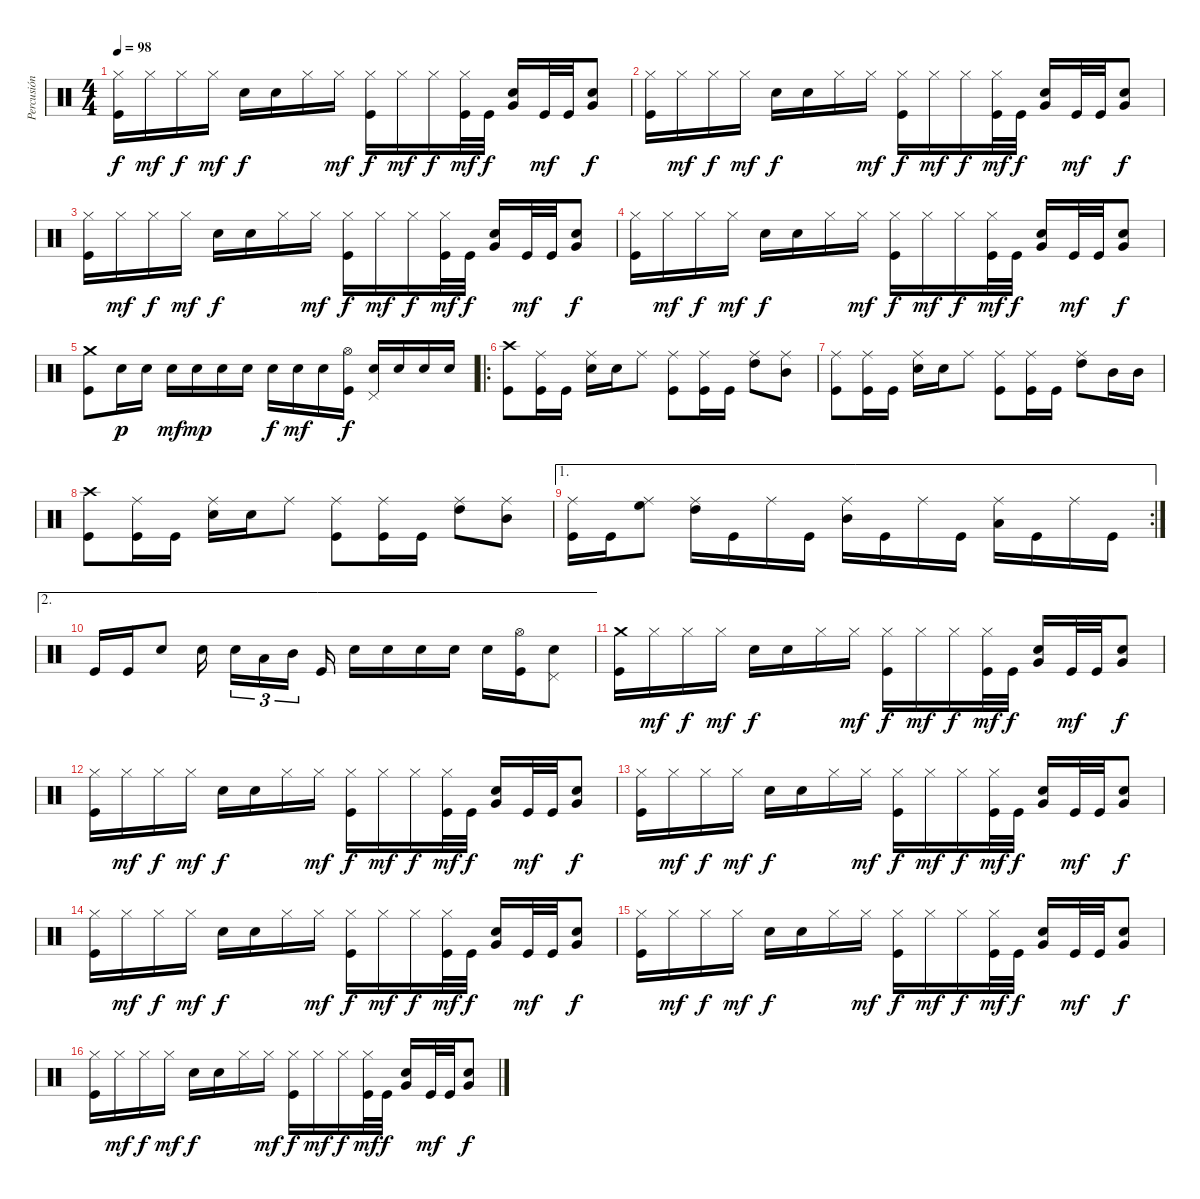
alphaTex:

\track ("Percusión" "Percusión") {instrument percussion}
\staff {score}
\articulation defaults
\ts (4 4)
\tempo 98
\clef neutral
\ks c
("Hi-Hat (closed)" "Kick (hit)").16{dy f} "Hi-Hat (closed)".16{dy mf} "Hi-Hat (closed)".16{dy f} "Hi-Hat (closed)".16{dy mf} "Electric Snare (hit)".16{dy f} "Electric Snare (hit)".16 "Hi-Hat (closed)".16 "Hi-Hat (closed)".16{dy mf} ("Hi-Hat (closed)" "Kick (hit)").16{dy f} "Hi-Hat (closed)".16{dy mf} "Hi-Hat (closed)".16{dy f} ("Hi-Hat (closed)" "Kick (hit)").32{dy mf} "Kick (hit)".32{dy f} ("Electric Snare (hit)" "Very Low Tom (hit)").16 "Kick (hit)".32{dy mf} "Kick (hit)".32 ("Electric Snare (hit)" "Very Low Tom (hit)").8{dy f} |
("Hi-Hat (closed)" "Kick (hit)").16 "Hi-Hat (closed)".16{dy mf} "Hi-Hat (closed)".16{dy f} "Hi-Hat (closed)".16{dy mf} "Electric Snare (hit)".16{dy f} "Electric Snare (hit)".16 "Hi-Hat (closed)".16 "Hi-Hat (closed)".16{dy mf} ("Hi-Hat (closed)" "Kick (hit)").16{dy f} "Hi-Hat (closed)".16{dy mf} "Hi-Hat (closed)".16{dy f} ("Hi-Hat (closed)" "Kick (hit)").32{dy mf} "Kick (hit)".32{dy f} ("Electric Snare (hit)" "Very Low Tom (hit)").16 "Kick (hit)".32{dy mf} "Kick (hit)".32 ("Electric Snare (hit)" "Very Low Tom (hit)").8{dy f} |
("Hi-Hat (closed)" "Kick (hit)").16 "Hi-Hat (closed)".16{dy mf} "Hi-Hat (closed)".16{dy f} "Hi-Hat (closed)".16{dy mf} "Electric Snare (hit)".16{dy f} "Electric Snare (hit)".16 "Hi-Hat (closed)".16 "Hi-Hat (closed)".16{dy mf} ("Hi-Hat (closed)" "Kick (hit)").16{dy f} "Hi-Hat (closed)".16{dy mf} "Hi-Hat (closed)".16{dy f} ("Hi-Hat (closed)" "Kick (hit)").32{dy mf} "Kick (hit)".32{dy f} ("Electric Snare (hit)" "Very Low Tom (hit)").16 "Kick (hit)".32{dy mf} "Kick (hit)".32 ("Electric Snare (hit)" "Very Low Tom (hit)").8{dy f} |
("Hi-Hat (closed)" "Kick (hit)").16 "Hi-Hat (closed)".16{dy mf} "Hi-Hat (closed)".16{dy f} "Hi-Hat (closed)".16{dy mf} "Electric Snare (hit)".16{dy f} "Electric Snare (hit)".16 "Hi-Hat (closed)".16 "Hi-Hat (closed)".16{dy mf} ("Hi-Hat (closed)" "Kick (hit)").16{dy f} "Hi-Hat (closed)".16{dy mf} "Hi-Hat (closed)".16{dy f} ("Hi-Hat (closed)" "Kick (hit)").32{dy mf} "Kick (hit)".32{dy f} ("Electric Snare (hit)" "Very Low Tom (hit)").16 "Kick (hit)".32{dy mf} "Kick (hit)".32 ("Electric Snare (hit)" "Very Low Tom (hit)").8{dy f} |
("Crash medium (hit)" "Kick (hit)").8 "Electric Snare (hit)".16{dy p} "Electric Snare (hit)".16 "Electric Snare (hit)".16{dy mf} "Electric Snare (hit)".16{dy mp} "Electric Snare (hit)".16 "Electric Snare (hit)".16 "Electric Snare (hit)".16{dy f} "Electric Snare (hit)".16{dy mf} "Electric Snare (hit)".16 ("Hi-Hat (open)" "Kick (hit)").16{dy f} ("Electric Snare (hit)" "Pedal Hi-Hat (hit)").16 "Electric Snare (hit)".16 "Electric Snare (hit)".16 "Electric Snare (hit)".16 |
\ro
("Crash high (hit)" "Kick (hit)").8 ("Ride (middle)" "Kick (hit)").16 "Kick (hit)".16 ("Ride (middle)" "Electric Snare (hit)").16 "Electric Snare (hit)".16 "Ride (middle)".8 ("Ride (middle)" "Kick (hit)").8 ("Ride (middle)" "Kick (hit)").16 "Kick (hit)".16 ("Ride (middle)" "High Tom (hit)").8 ("Ride (middle)" "Mid Tom (hit)").8 |
("Ride (middle)" "Kick (hit)").8 ("Ride (middle)" "Kick (hit)").16 "Kick (hit)".16 ("Ride (middle)" "Electric Snare (hit)").16 "Electric Snare (hit)".16 "Ride (middle)".8 ("Ride (middle)" "Kick (hit)").8 ("Ride (middle)" "Kick (hit)").16 "Kick (hit)".16 ("Ride (middle)" "High Tom (hit)").8 "Mid Tom (hit)".16 "Mid Tom (hit)".16 |
("Crash high (hit)" "Kick (hit)").8 ("Ride (middle)" "Kick (hit)").16 "Kick (hit)".16 ("Ride (middle)" "Electric Snare (hit)").16 "Electric Snare (hit)".16 "Ride (middle)".8 ("Ride (middle)" "Kick (hit)").8 ("Ride (middle)" "Kick (hit)").16 "Kick (hit)".16 ("Ride (middle)" "High Tom (hit)").8 ("Ride (middle)" "Mid Tom (hit)").8 |
\ae 1
\rc 2
("Ride (middle)" "Kick (hit)").16 "Kick (hit)".16 ("Ride (middle)" "High Floor Tom (hit)").8 ("Ride (middle)" "High Tom (hit)").16 "Kick (hit)".16 "Ride (middle)".16 "Kick (hit)".16 ("Ride (middle)" "Mid Tom (hit)").16 "Kick (hit)".16 "Ride (middle)".16 "Kick (hit)".16 ("Ride (middle)" "Low Tom (hit)").16 "Kick (hit)".16 "Ride (middle)".16 "Kick (hit)".16 |
\ae 2 "Kick (hit)".16 "Kick (hit)".16 "Electric Snare (hit)".8 "Electric Snare (hit)".16{beam splitsecondary} "Electric Snare (hit)".16{tu (3 2)} "Low Tom (hit)".16{tu (3 2)} "Mid Tom (hit)".16{tu (3 2) beam splitsecondary} "Kick (hit)".16 "Electric Snare (hit)".16 "Electric Snare (hit)".16 "Electric Snare (hit)".16 "Electric Snare (hit)".16 "Electric Snare (hit)".16
("Hi-Hat (open)" "Kick (hit)").16 ("Electric Snare (hit)" "Pedal Hi-Hat (hit)").8 |
("Crash medium (hit)" "Kick (hit)").16 "Hi-Hat (closed)".16{dy mf} "Hi-Hat (closed)".16{dy f} "Hi-Hat (closed)".16{dy mf} "Electric Snare (hit)".16{dy f} "Electric Snare (hit)".16 "Hi-Hat (closed)".16 "Hi-Hat (closed)".16{dy mf} ("Hi-Hat (closed)" "Kick (hit)").16{dy f} "Hi-Hat (closed)".16{dy mf} "Hi-Hat (closed)".16{dy f} ("Hi-Hat (closed)" "Kick (hit)").32{dy mf} "Kick (hit)".32{dy f} ("Electric Snare (hit)" "Very Low Tom (hit)").16 "Kick (hit)".32{dy mf} "Kick (hit)".32 ("Electric Snare (hit)" "Very Low Tom (hit)").8{dy f} |
("Hi-Hat (closed)" "Kick (hit)").16 "Hi-Hat (closed)".16{dy mf} "Hi-Hat (closed)".16{dy f} "Hi-Hat (closed)".16{dy mf} "Electric Snare (hit)".16{dy f} "Electric Snare (hit)".16 "Hi-Hat (closed)".16 "Hi-Hat (closed)".16{dy mf} ("Hi-Hat (closed)" "Kick (hit)").16{dy f} "Hi-Hat (closed)".16{dy mf} "Hi-Hat (closed)".16{dy f} ("Hi-Hat (closed)" "Kick (hit)").32{dy mf} "Kick (hit)".32{dy f} ("Electric Snare (hit)" "Very Low Tom (hit)").16 "Kick (hit)".32{dy mf} "Kick (hit)".32 ("Electric Snare (hit)" "Very Low Tom (hit)").8{dy f} |
("Hi-Hat (closed)" "Kick (hit)").16 "Hi-Hat (closed)".16{dy mf} "Hi-Hat (closed)".16{dy f} "Hi-Hat (closed)".16{dy mf} "Electric Snare (hit)".16{dy f} "Electric Snare (hit)".16 "Hi-Hat (closed)".16 "Hi-Hat (closed)".16{dy mf} ("Hi-Hat (closed)" "Kick (hit)").16{dy f} "Hi-Hat (closed)".16{dy mf} "Hi-Hat (closed)".16{dy f} ("Hi-Hat (closed)" "Kick (hit)").32{dy mf} "Kick (hit)".32{dy f} ("Electric Snare (hit)" "Very Low Tom (hit)").16 "Kick (hit)".32{dy mf} "Kick (hit)".32 ("Electric Snare (hit)" "Very Low Tom (hit)").8{dy f} |
("Hi-Hat (closed)" "Kick (hit)").16 "Hi-Hat (closed)".16{dy mf} "Hi-Hat (closed)".16{dy f} "Hi-Hat (closed)".16{dy mf} "Electric Snare (hit)".16{dy f} "Electric Snare (hit)".16 "Hi-Hat (closed)".16 "Hi-Hat (closed)".16{dy mf} ("Hi-Hat (closed)" "Kick (hit)").16{dy f} "Hi-Hat (closed)".16{dy mf} "Hi-Hat (closed)".16{dy f} ("Hi-Hat (closed)" "Kick (hit)").32{dy mf} "Kick (hit)".32{dy f} ("Electric Snare (hit)" "Very Low Tom (hit)").16 "Kick (hit)".32{dy mf} "Kick (hit)".32 ("Electric Snare (hit)" "Very Low Tom (hit)").8{dy f} |
("Hi-Hat (closed)" "Kick (hit)").16 "Hi-Hat (closed)".16{dy mf} "Hi-Hat (closed)".16{dy f} "Hi-Hat (closed)".16{dy mf} "Electric Snare (hit)".16{dy f} "Electric Snare (hit)".16 "Hi-Hat (closed)".16 "Hi-Hat (closed)".16{dy mf} ("Hi-Hat (closed)" "Kick (hit)").16{dy f} "Hi-Hat (closed)".16{dy mf} "Hi-Hat (closed)".16{dy f} ("Hi-Hat (closed)" "Kick (hit)").32{dy mf} "Kick (hit)".32{dy f} ("Electric Snare (hit)" "Very Low Tom (hit)").16 "Kick (hit)".32{dy mf} "Kick (hit)".32 ("Electric Snare (hit)" "Very Low Tom (hit)").8{dy f} |
("Hi-Hat (closed)" "Kick (hit)").16 "Hi-Hat (closed)".16{dy mf} "Hi-Hat (closed)".16{dy f} "Hi-Hat (closed)".16{dy mf} "Electric Snare (hit)".16{dy f} "Electric Snare (hit)".16 "Hi-Hat (closed)".16 "Hi-Hat (closed)".16{dy mf} ("Hi-Hat (closed)" "Kick (hit)").16{dy f} "Hi-Hat (closed)".16{dy mf} "Hi-Hat (closed)".16{dy f} ("Hi-Hat (closed)" "Kick (hit)").32{dy mf} "Kick (hit)".32{dy f} ("Electric Snare (hit)" "Very Low Tom (hit)").16 "Kick (hit)".32{dy mf} "Kick (hit)".32 ("Electric Snare (hit)" "Very Low Tom (hit)").8{dy f}
